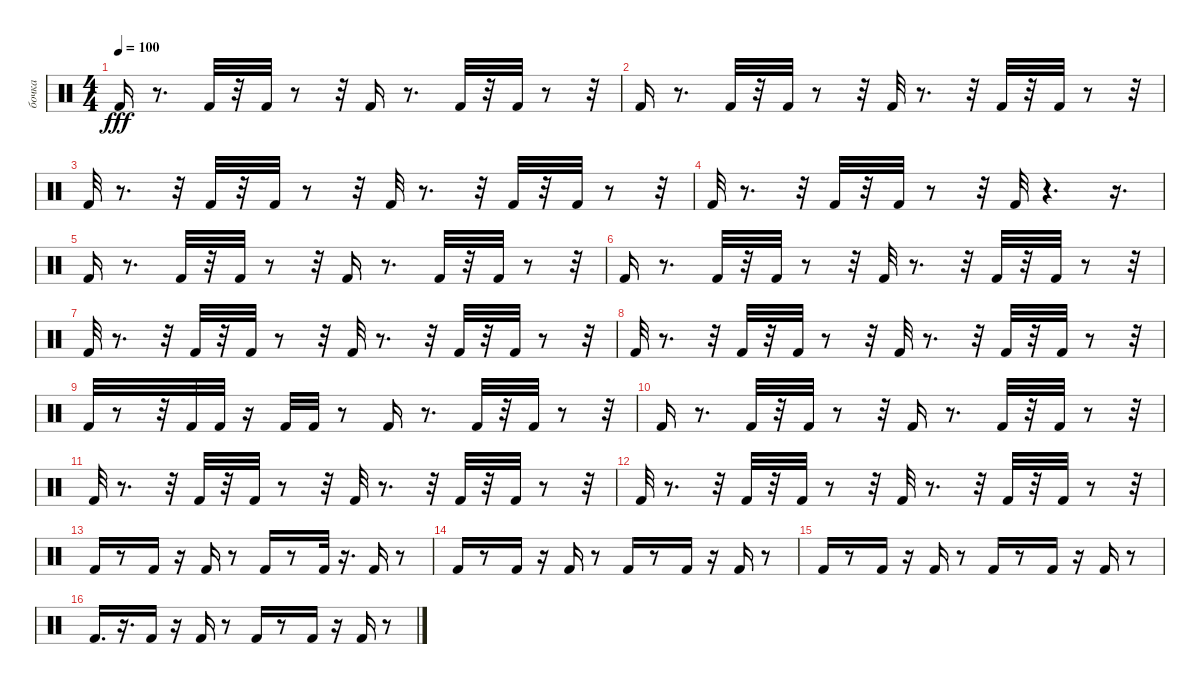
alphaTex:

\track ("бочка" "бочка") {instrument percussion}
\staff {score}
\articulation defaults
\ts (4 4)
\tempo 100
\clef neutral
\ks c "Kick (hit) 2".16{dy fff}
r.8{d} "Kick (hit) 2".32 r.32 "Kick (hit) 2".32 r.8 r.32 "Kick (hit) 2".16 r.8{d} "Kick (hit) 2".32 r.32 "Kick (hit) 2".32 r.8 r.32 |
"Kick (hit) 2".16 r.8{d} "Kick (hit) 2".32 r.32 "Kick (hit) 2".32 r.8 r.32 "Kick (hit) 2".32 r.8{d} r.32 "Kick (hit) 2".32 r.32 "Kick (hit) 2".32 r.8 r.32 |
"Kick (hit) 2".32 r.8{d} r.32 "Kick (hit) 2".32 r.32 "Kick (hit) 2".32 r.8 r.32 "Kick (hit) 2".32 r.8{d} r.32 "Kick (hit) 2".32 r.32 "Kick (hit) 2".32 r.8 r.32 |
"Kick (hit) 2".32 r.8{d} r.32 "Kick (hit) 2".32 r.32 "Kick (hit) 2".32 r.8 r.32 "Kick (hit) 2".32 r.4{d} r.16{d} |
"Kick (hit) 2".16 r.8{d} "Kick (hit) 2".32 r.32 "Kick (hit) 2".32 r.8 r.32 "Kick (hit) 2".16 r.8{d} "Kick (hit) 2".32 r.32 "Kick (hit) 2".32 r.8 r.32 |
"Kick (hit) 2".16 r.8{d} "Kick (hit) 2".32 r.32 "Kick (hit) 2".32 r.8 r.32 "Kick (hit) 2".32 r.8{d} r.32 "Kick (hit) 2".32 r.32 "Kick (hit) 2".32 r.8 r.32 |
"Kick (hit) 2".32 r.8{d} r.32 "Kick (hit) 2".32 r.32 "Kick (hit) 2".32 r.8 r.32 "Kick (hit) 2".32 r.8{d} r.32 "Kick (hit) 2".32 r.32 "Kick (hit) 2".32 r.8 r.32 |
"Kick (hit) 2".32 r.8{d} r.32 "Kick (hit) 2".32 r.32 "Kick (hit) 2".32 r.8 r.32 "Kick (hit) 2".32 r.8{d} r.32 "Kick (hit) 2".32 r.32 "Kick (hit) 2".32 r.8 r.32 |
"Kick (hit) 2".32 r.8 r.32 "Kick (hit) 2".32 "Kick (hit) 2".32 r.16 "Kick (hit) 2".32 "Kick (hit) 2".32 r.8 "Kick (hit) 2".16 r.8{d} "Kick (hit) 2".32 r.32 "Kick (hit) 2".32 r.8 r.32 |
"Kick (hit) 2".16 r.8{d} "Kick (hit) 2".32 r.32 "Kick (hit) 2".32 r.8 r.32 "Kick (hit) 2".16 r.8{d} "Kick (hit) 2".32 r.32 "Kick (hit) 2".32 r.8 r.32 |
"Kick (hit) 2".32 r.8{d} r.32 "Kick (hit) 2".32 r.32 "Kick (hit) 2".32 r.8 r.32 "Kick (hit) 2".32 r.8{d} r.32 "Kick (hit) 2".32 r.32 "Kick (hit) 2".32 r.8 r.32 |
"Kick (hit) 2".32 r.8{d} r.32 "Kick (hit) 2".32 r.32 "Kick (hit) 2".32 r.8 r.32 "Kick (hit) 2".32 r.8{d} r.32 "Kick (hit) 2".32 r.32 "Kick (hit) 2".32 r.8 r.32 |
"Kick (hit) 2".16 r.8 "Kick (hit) 2".16 r.16 "Kick (hit) 2".16 r.8 "Kick (hit) 2".16 r.8 "Kick (hit) 2".32 r.16{d} "Kick (hit) 2".16 r.8 |
"Kick (hit) 2".16 r.8 "Kick (hit) 2".16 r.16 "Kick (hit) 2".16 r.8 "Kick (hit) 2".16 r.8 "Kick (hit) 2".16 r.16 "Kick (hit) 2".16 r.8 |
"Kick (hit) 2".16 r.8 "Kick (hit) 2".16 r.16 "Kick (hit) 2".16 r.8 "Kick (hit) 2".16 r.8 "Kick (hit) 2".16 r.16 "Kick (hit) 2".16 r.8 |
"Kick (hit) 2".16{d} r.16{d} "Kick (hit) 2".16 r.16 "Kick (hit) 2".16 r.8 "Kick (hit) 2".16 r.8 "Kick (hit) 2".16 r.16 "Kick (hit) 2".16 r.8
